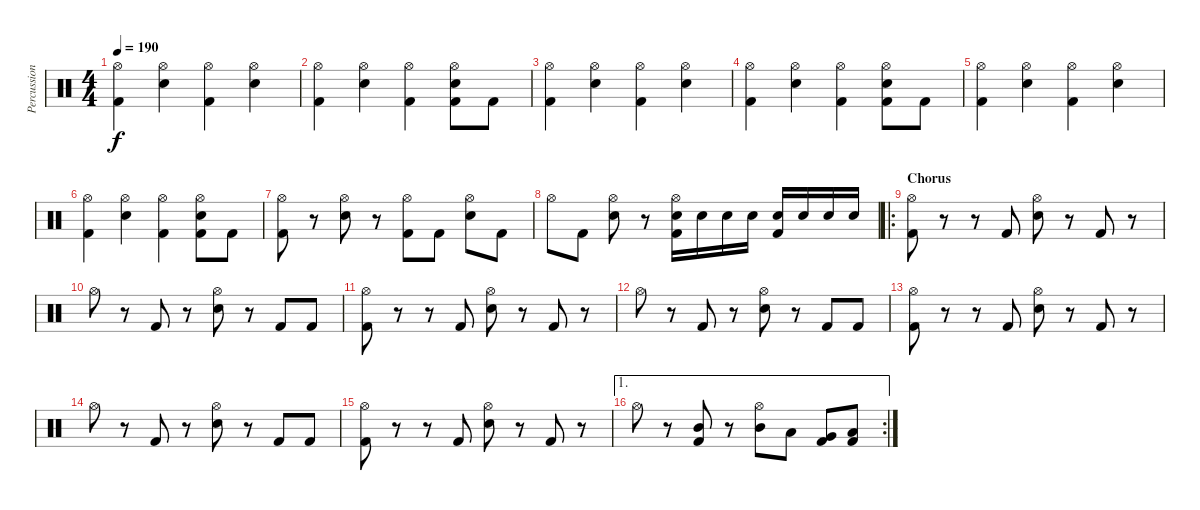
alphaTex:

\track ("Percussion" "Percussion") {instrument percussion}
\staff {score}
\articulation defaults
\ts (4 4)
\tempo 190
\clef neutral
\ks c
("Hi-Hat (open)" "Kick (hit) 2").4{dy f} ("Hi-Hat (open)" "Electric Snare (hit)").4 ("Hi-Hat (open)" "Kick (hit) 2").4 ("Hi-Hat (open)" "Electric Snare (hit)").4 |
("Hi-Hat (open)" "Kick (hit) 2").4 ("Hi-Hat (open)" "Electric Snare (hit)").4 ("Hi-Hat (open)" "Kick (hit) 2").4 ("Hi-Hat (open)" "Electric Snare (hit)" "Kick (hit) 2").8 "Kick (hit) 2".8 |
("Hi-Hat (open)" "Kick (hit) 2").4 ("Hi-Hat (open)" "Electric Snare (hit)").4 ("Hi-Hat (open)" "Kick (hit) 2").4 ("Hi-Hat (open)" "Electric Snare (hit)").4 |
("Hi-Hat (open)" "Kick (hit) 2").4 ("Hi-Hat (open)" "Electric Snare (hit)").4 ("Hi-Hat (open)" "Kick (hit) 2").4 ("Hi-Hat (open)" "Electric Snare (hit)" "Kick (hit) 2").8 "Kick (hit) 2".8 |
("Hi-Hat (open)" "Kick (hit) 2").4 ("Hi-Hat (open)" "Electric Snare (hit)").4 ("Hi-Hat (open)" "Kick (hit) 2").4 ("Hi-Hat (open)" "Electric Snare (hit)").4 |
("Hi-Hat (open)" "Kick (hit) 2").4 ("Hi-Hat (open)" "Electric Snare (hit)").4 ("Hi-Hat (open)" "Kick (hit) 2").4 ("Hi-Hat (open)" "Electric Snare (hit)" "Kick (hit) 2").8 "Kick (hit) 2".8 |
("Hi-Hat (open)" "Kick (hit) 2").8 r.8 ("Hi-Hat (open)" "Electric Snare (hit)").8 r.8 ("Hi-Hat (open)" "Kick (hit) 2").8 "Kick (hit) 2".8 ("Hi-Hat (open)" "Electric Snare (hit)").8 "Kick (hit) 2".8 |
"Hi-Hat (open)".8 "Kick (hit) 2".8 ("Hi-Hat (open)" "Electric Snare (hit)").8 r.8 ("Hi-Hat (open)" "Electric Snare (hit)" "Kick (hit) 2").16 "Electric Snare (hit)".16 "Electric Snare (hit)".16 "Electric Snare (hit)".16 ("Electric Snare (hit)" "Kick (hit) 2").16 "Electric Snare (hit)".16 "Electric Snare (hit)".16 "Electric Snare (hit)".16 |
\ro
\section ("" "Chorus")
("Hi-Hat (open)" "Kick (hit) 2").8 r.8 r.8 "Kick (hit) 2".8 ("Hi-Hat (open)" "Electric Snare (hit)").8 r.8 "Kick (hit) 2".8 r.8 |
"Hi-Hat (open)".8 r.8 "Kick (hit) 2".8 r.8 ("Hi-Hat (open)" "Electric Snare (hit)").8 r.8 "Kick (hit) 2".8 "Kick (hit) 2".8 |
("Hi-Hat (open)" "Kick (hit) 2").8 r.8 r.8 "Kick (hit) 2".8 ("Hi-Hat (open)" "Electric Snare (hit)").8 r.8 "Kick (hit) 2".8 r.8 |
"Hi-Hat (open)".8 r.8 "Kick (hit) 2".8 r.8 ("Hi-Hat (open)" "Electric Snare (hit)").8 r.8 "Kick (hit) 2".8 "Kick (hit) 2".8 |
("Hi-Hat (open)" "Kick (hit) 2").8 r.8 r.8 "Kick (hit) 2".8 ("Hi-Hat (open)" "Electric Snare (hit)").8 r.8 "Kick (hit) 2".8 r.8 |
"Hi-Hat (open)".8 r.8 "Kick (hit) 2".8 r.8 ("Hi-Hat (open)" "Electric Snare (hit)").8 r.8 "Kick (hit) 2".8 "Kick (hit) 2".8 |
("Hi-Hat (open)" "Kick (hit) 2").8 r.8 r.8 "Kick (hit) 2".8 ("Hi-Hat (open)" "Electric Snare (hit)").8 r.8 "Kick (hit) 2".8 r.8 |
\ae 1
\rc 2 "Hi-Hat (open)".8
r.8 ("Mid Tom (hit)" "Kick (hit) 2").8 r.8 ("Hi-Hat (open)" "Mid Tom (hit)").8 "Low Tom (hit)".8 ("Very Low Tom (hit)" "Kick (hit) 2").8 ("Low Floor Tom (hit)" "Kick (hit) 2").8
